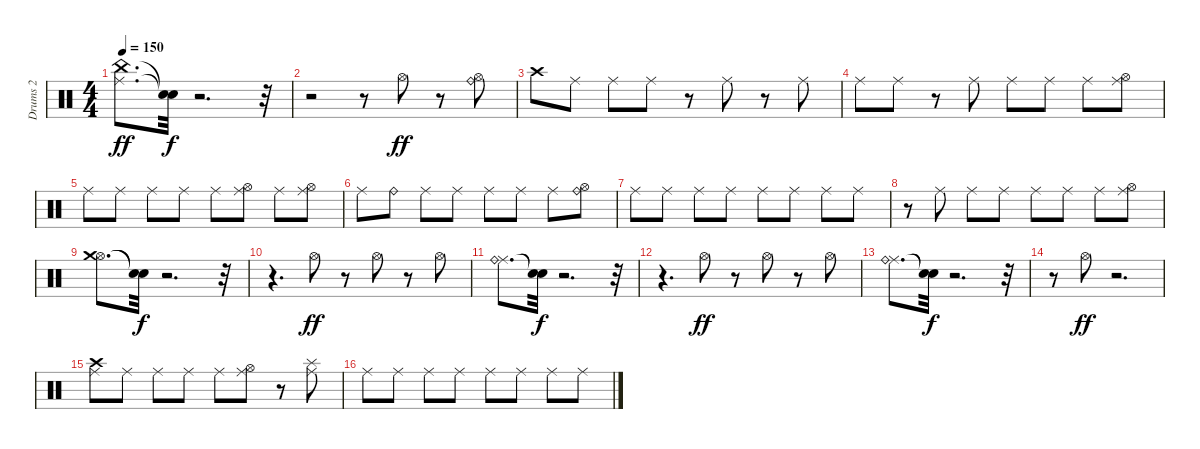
\track ("Drums 2" "Drums 2") {instrument percussion}
\staff {score}
\articulation defaults
\ts (4 4)
\tempo 150
\clef neutral
\ks c
("Ride (middle)" "China (hit)").8{d dy ff} ("Snare (hit)"{t} "Snare (hit)"{t}).32{dy f} r.2{d} r.32 |
r.2 r.8 "Hi-Hat (open)".8{dy ff} r.8 ("Hi-Hat (open)" "Ride (bell)").8 |
"Crash high (hit)".8 "Ride (middle)".8 "Ride (middle)".8 "Ride (middle)".8 r.8 "Ride (middle)".8 r.8 "Ride (middle)".8 |
"Ride (middle)".8 "Ride (middle)".8 r.8 "Ride (middle)".8 "Ride (middle)".8 "Ride (middle)".8 "Ride (middle)".8 ("Hi-Hat (open)" "Ride (middle)").8 |
"Ride (middle)".8 "Ride (middle)".8 "Ride (middle)".8 "Ride (middle)".8 "Ride (middle)".8 ("Hi-Hat (open)" "Ride (middle)").8 "Ride (middle)".8 ("Hi-Hat (open)" "Ride (middle)").8 |
"Ride (middle)".8 "Ride (bell)".8 "Ride (middle)".8 "Ride (middle)".8 "Ride (middle)".8 "Ride (middle)".8 "Ride (middle)".8 ("Hi-Hat (open)" "Ride (bell)").8 |
"Ride (middle)".8 "Ride (middle)".8 "Ride (middle)".8 "Ride (middle)".8 "Ride (middle)".8 "Ride (middle)".8 "Ride (middle)".8 "Ride (middle)".8 |
r.8 "Ride (middle)".8 "Ride (middle)".8 "Ride (middle)".8 "Ride (middle)".8 "Ride (middle)".8 "Ride (middle)".8 ("Hi-Hat (open)" "Ride (middle)").8 |
("Hi-Hat (open)" "Crash medium (hit)").8{d} ("Snare (hit)"{t} "Snare (hit)"{t}).32{dy f} r.2{d} r.32 |
r.4{d} "Hi-Hat (open)".8{dy ff} r.8 "Hi-Hat (open)".8 r.8 "Hi-Hat (open)".8 |
("Ride (middle)" "Ride (bell)").8{d} ("Snare (hit)"{t} "Snare (hit)"{t}).32{dy f} r.2{d} r.32 |
r.4{d} "Hi-Hat (open)".8{dy ff} r.8 "Hi-Hat (open)".8 r.8 "Hi-Hat (open)".8 |
("Ride (middle)" "Ride (bell)").8{d} ("Snare (hit)"{t} "Snare (hit)"{t}).32{dy f} r.2{d} r.32 |
r.8 "Hi-Hat (open)".8{dy ff} r.2{d} |
("Crash high (hit)" "Ride (middle)").8 "Ride (middle)".8 "Ride (middle)".8 "Ride (middle)".8 "Ride (middle)".8 ("Hi-Hat (open)" "Ride (middle)").8 r.8 ("Ride (middle)" "Splash (hit)").8 |
"Ride (middle)".8 "Ride (middle)".8 "Ride (middle)".8 "Ride (middle)".8 "Ride (middle)".8 "Ride (middle)".8 "Ride (middle)".8 "Ride (middle)".8
